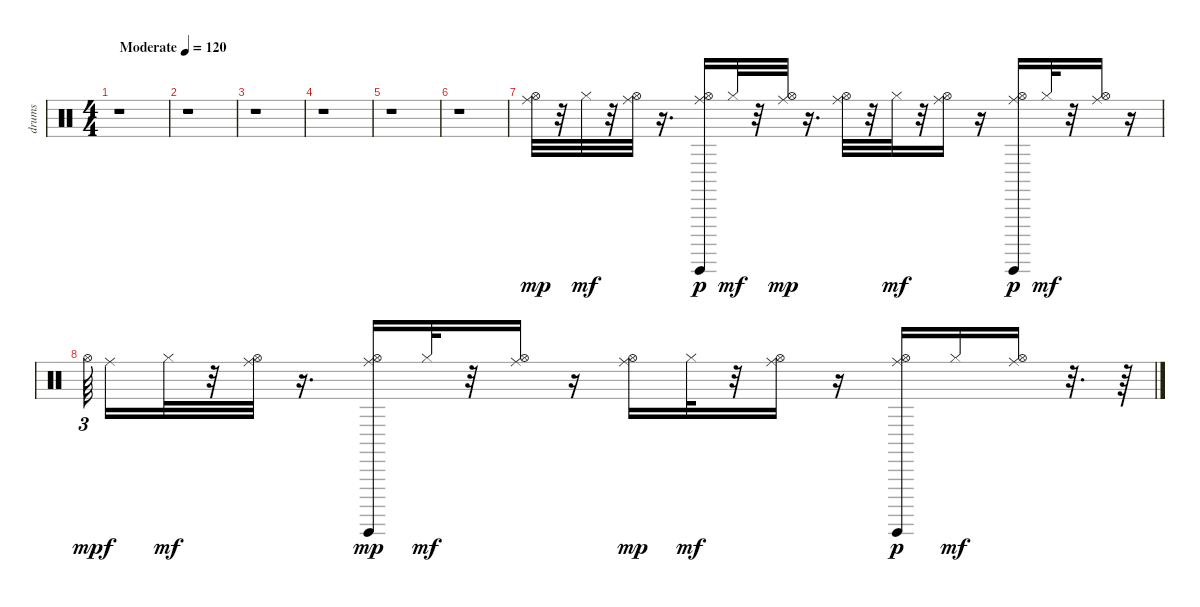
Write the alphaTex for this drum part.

\track ("drums                               " "drums     ") {instrument percussion}
\staff {score}
\articulation defaults
\ts (4 4)
\tempo (120 "Moderate")
\clef neutral
\ks c
r.1{dy mp} |
r.1 |
r.1 |
r.1 |
r.1 |
r.1 |
("Ride (middle)" "Hi-Hat (open)").32 r.32 "Hi-Hat (closed)".32{dy mf} r.32 ("Ride (middle)" "Hi-Hat (open)").32 r.16{d} ("Hi-Hat (open)" "Guiro (hit)" "Ride (middle)").16{dy p} "Hi-Hat (closed)".32{dy mf} r.32 ("Hi-Hat (open)" "Ride (middle)").32{dy mp} r.16{d} ("Hi-Hat (open)" "Ride (middle)").32 r.32 "Hi-Hat (closed)".32{dy mf} r.32 ("Ride (middle)" "Hi-Hat (open)").16 r.16 ("Hi-Hat (open)" "Guiro (hit)" "Ride (middle)").16{dy p} "Hi-Hat (closed)".32{dy mf} r.32 ("Hi-Hat (open)" "Ride (middle)").16 r.16 |
"Hi-Hat (open)".64{tu (3 2) dy mp beam splitsecondary} "Ride (middle)".16{dy f} "Hi-Hat (closed)".32{dy mf} r.32 ("Hi-Hat (open)" "Ride (middle)").32 r.16{d} ("Guiro (hit)" "Hi-Hat (open)" "Ride (middle)").16{dy mp} "Hi-Hat (closed)".32{dy mf} r.32 ("Hi-Hat (open)" "Ride (middle)").16 r.16 ("Ride (middle)" "Hi-Hat (open)").16{dy mp} "Hi-Hat (closed)".32{dy mf} r.32 ("Hi-Hat (open)" "Ride (middle)").16 r.16 ("Guiro (hit)" "Hi-Hat (open)" "Ride (middle)").16{dy p} "Hi-Hat (closed)".16{dy mf} ("Hi-Hat (open)" "Ride (middle)").16 r.32{d} r.64
